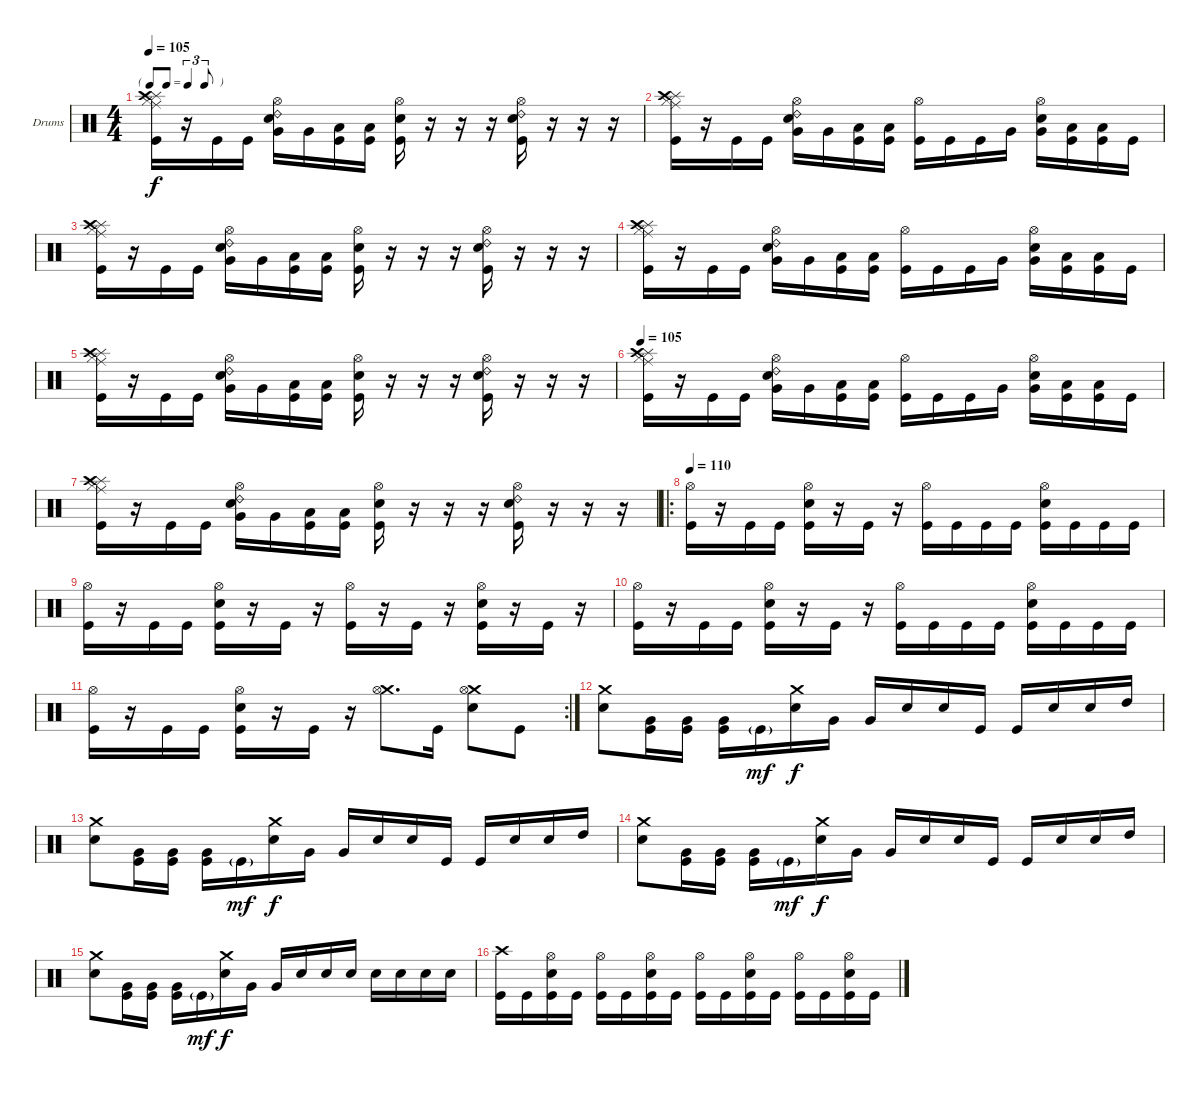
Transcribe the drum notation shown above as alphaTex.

\bracketExtendMode groupsimilarinstruments
\firstSystemTrackNameOrientation horizontal
\otherSystemsTrackNameOrientation horizontal
\track ("Drumkit" "Drums") {instrument percussion}
\staff {score}
\articulation defaults
\ts (4 4)
\tf triplet8th
\tempo 105
\clef neutral
\ks c
("Kick (hit)" "Ride (middle)" "Hi-Hat (closed)" "Splash (hit)" "Crash high (hit)").16{dy f} r.16 "Kick (hit)".16 "Kick (hit)".16 ("Very Low Tom (hit)" "Snare (hit) 2" "Ride (bell) 2" "Hi-Hat (open)").16 "Very Low Tom (hit)".16 ("Low Tom (hit)" "Kick (hit)").16 ("Low Tom (hit)" "Kick (hit)").16 ("Kick (hit)" "Hi-Hat (open)" "Snare (hit) 2").16 r.16 r.16 r.16 ("Kick (hit)" "Snare (hit) 2" "Ride (bell) 2" "Hi-Hat (open)").16 r.16 r.16 r.16 |
("Kick (hit)" "Ride (middle)" "Hi-Hat (closed)" "Splash (hit)" "Crash high (hit)").16 r.16 "Kick (hit)".16 "Kick (hit)".16 ("Very Low Tom (hit)" "Snare (hit) 2" "Ride (bell) 2" "Hi-Hat (open)").16 "Very Low Tom (hit)".16 ("Low Tom (hit)" "Kick (hit)").16 ("Low Tom (hit)" "Kick (hit)").16 ("Kick (hit)" "Hi-Hat (open)").16 "Kick (hit)".16 "Kick (hit)".16 "Very Low Tom (hit)".16 ("Very Low Tom (hit)" "Snare (hit) 2" "Hi-Hat (open)").16 ("Low Tom (hit)" "Kick (hit)").16 ("Low Tom (hit)" "Kick (hit)").16 "Kick (hit)".16 |
("Kick (hit)" "Ride (middle)" "Hi-Hat (closed)" "Splash (hit)" "Crash high (hit)").16 r.16 "Kick (hit)".16 "Kick (hit)".16 ("Very Low Tom (hit)" "Snare (hit) 2" "Ride (bell) 2" "Hi-Hat (open)").16 "Very Low Tom (hit)".16 ("Low Tom (hit)" "Kick (hit)").16 ("Low Tom (hit)" "Kick (hit)").16 ("Kick (hit)" "Hi-Hat (open)" "Snare (hit) 2").16 r.16 r.16 r.16 ("Kick (hit)" "Snare (hit) 2" "Ride (bell) 2" "Hi-Hat (open)").16 r.16 r.16 r.16 |
("Kick (hit)" "Ride (middle)" "Hi-Hat (closed)" "Splash (hit)" "Crash high (hit)").16 r.16 "Kick (hit)".16 "Kick (hit)".16 ("Very Low Tom (hit)" "Snare (hit) 2" "Ride (bell) 2" "Hi-Hat (open)").16 "Very Low Tom (hit)".16 ("Low Tom (hit)" "Kick (hit)").16 ("Low Tom (hit)" "Kick (hit)").16 ("Kick (hit)" "Hi-Hat (open)").16 "Kick (hit)".16 "Kick (hit)".16 "Very Low Tom (hit)".16 ("Very Low Tom (hit)" "Snare (hit) 2" "Hi-Hat (open)").16 ("Low Tom (hit)" "Kick (hit)").16 ("Low Tom (hit)" "Kick (hit)").16 "Kick (hit)".16 |
("Kick (hit)" "Ride (middle)" "Hi-Hat (closed)" "Splash (hit)" "Crash high (hit)").16 r.16 "Kick (hit)".16 "Kick (hit)".16 ("Very Low Tom (hit)" "Snare (hit) 2" "Ride (bell) 2" "Hi-Hat (open)").16 "Very Low Tom (hit)".16 ("Low Tom (hit)" "Kick (hit)").16 ("Low Tom (hit)" "Kick (hit)").16 ("Kick (hit)" "Hi-Hat (open)" "Snare (hit) 2").16 r.16 r.16 r.16 ("Kick (hit)" "Snare (hit) 2" "Ride (bell) 2" "Hi-Hat (open)").16 r.16 r.16 r.16 |
\tempo 105
("Kick (hit)" "Ride (middle)" "Hi-Hat (closed)" "Splash (hit)" "Crash high (hit)").16 r.16 "Kick (hit)".16 "Kick (hit)".16 ("Very Low Tom (hit)" "Snare (hit) 2" "Ride (bell) 2" "Hi-Hat (open)").16 "Very Low Tom (hit)".16 ("Low Tom (hit)" "Kick (hit)").16 ("Low Tom (hit)" "Kick (hit)").16 ("Kick (hit)" "Hi-Hat (open)").16 "Kick (hit)".16 "Kick (hit)".16 "Very Low Tom (hit)".16 ("Very Low Tom (hit)" "Snare (hit) 2" "Hi-Hat (open)").16 ("Low Tom (hit)" "Kick (hit)").16 ("Low Tom (hit)" "Kick (hit)").16 "Kick (hit)".16 |
("Kick (hit)" "Ride (middle)" "Hi-Hat (closed)" "Splash (hit)" "Crash high (hit)").16 r.16 "Kick (hit)".16 "Kick (hit)".16 ("Very Low Tom (hit)" "Snare (hit) 2" "Ride (bell) 2" "Hi-Hat (open)").16 "Very Low Tom (hit)".16 ("Low Tom (hit)" "Kick (hit)").16 ("Low Tom (hit)" "Kick (hit)").16 ("Kick (hit)" "Hi-Hat (open)" "Snare (hit) 2").16 r.16 r.16 r.16 ("Kick (hit)" "Snare (hit) 2" "Ride (bell) 2" "Hi-Hat (open)").16 r.16 r.16 r.16 |
\ro
\tempo 110
("Kick (hit)" "Hi-Hat (open)").16 r.16 "Kick (hit)".16 "Kick (hit)".16 ("Kick (hit)" "Snare (hit) 2" "Hi-Hat (open)").16 r.16 "Kick (hit)".16 r.16 ("Kick (hit)" "Hi-Hat (open)").16 "Kick (hit)".16 "Kick (hit)".16 "Kick (hit)".16 ("Kick (hit)" "Snare (hit) 2" "Hi-Hat (open)").16 "Kick (hit)".16 "Kick (hit)".16 "Kick (hit)".16 |
("Kick (hit)" "Hi-Hat (open)").16 r.16 "Kick (hit)".16 "Kick (hit)".16 ("Kick (hit)" "Snare (hit) 2" "Hi-Hat (open)").16 r.16 "Kick (hit)".16 r.16 ("Kick (hit)" "Hi-Hat (open)").16 r.16 "Kick (hit)".16 r.16 ("Kick (hit)" "Snare (hit) 2" "Hi-Hat (open)").16 r.16 "Kick (hit)".16 r.16 |
("Kick (hit)" "Hi-Hat (open)").16 r.16 "Kick (hit)".16 "Kick (hit)".16 ("Kick (hit)" "Snare (hit) 2" "Hi-Hat (open)").16 r.16 "Kick (hit)".16 r.16 ("Kick (hit)" "Hi-Hat (open)").16 "Kick (hit)".16 "Kick (hit)".16 "Kick (hit)".16 ("Kick (hit)" "Snare (hit) 2" "Hi-Hat (open)").16 "Kick (hit)".16 "Kick (hit)".16 "Kick (hit)".16 |
\rc 2
("Kick (hit)" "Hi-Hat (open)").16 r.16 "Kick (hit)".16 "Kick (hit)".16 ("Kick (hit)" "Snare (hit) 2" "Hi-Hat (open)").16 r.16 "Kick (hit)".16 r.16 ("Crash medium (hit)" "Hi-Hat (open)").8{d} "Kick (hit)".16 ("Crash medium (hit)" "Snare (hit) 2" "Hi-Hat (open)").8 "Kick (hit)".8 |
("Snare (hit) 2" "Crash medium (hit)").8 ("Very Low Tom (hit)" "Kick (hit)").16 ("Very Low Tom (hit)" "Kick (hit)").16 ("Very Low Tom (hit)" "Kick (hit)").16 "Kick (hit)"{g}.16{dy mf} ("Crash medium (hit)" "Snare (hit) 2").16{dy f} "Very Low Tom (hit)".16 "Very Low Tom (hit)".16 "Snare (hit) 2".16 "Snare (hit) 2".16 "Kick (hit)".16 "Kick (hit)".16 "Snare (hit) 2".16 "Snare (hit) 2".16 "High Tom (hit)".16 |
("Snare (hit) 2" "Crash medium (hit)").8 ("Very Low Tom (hit)" "Kick (hit)").16 ("Very Low Tom (hit)" "Kick (hit)").16 ("Very Low Tom (hit)" "Kick (hit)").16 "Kick (hit)"{g}.16{dy mf} ("Crash medium (hit)" "Snare (hit) 2").16{dy f} "Very Low Tom (hit)".16 "Very Low Tom (hit)".16 "Snare (hit) 2".16 "Snare (hit) 2".16 "Kick (hit)".16 "Kick (hit)".16 "Snare (hit) 2".16 "Snare (hit) 2".16 "High Tom (hit)".16 |
("Snare (hit) 2" "Crash medium (hit)").8 ("Very Low Tom (hit)" "Kick (hit)").16 ("Very Low Tom (hit)" "Kick (hit)").16 ("Very Low Tom (hit)" "Kick (hit)").16 "Kick (hit)"{g}.16{dy mf} ("Crash medium (hit)" "Snare (hit) 2").16{dy f} "Very Low Tom (hit)".16 "Very Low Tom (hit)".16 "Snare (hit) 2".16 "Snare (hit) 2".16 "Kick (hit)".16 "Kick (hit)".16 "Snare (hit) 2".16 "Snare (hit) 2".16 "High Tom (hit)".16 |
("Snare (hit) 2" "Crash medium (hit)").8 ("Very Low Tom (hit)" "Kick (hit)").16 ("Very Low Tom (hit)" "Kick (hit)").16 ("Very Low Tom (hit)" "Kick (hit)").16 "Kick (hit)"{g}.16{dy mf} ("Crash medium (hit)" "Snare (hit) 2").16{dy f} "Very Low Tom (hit)".16 "Very Low Tom (hit)".16 "Snare (hit) 2".16 "Snare (hit) 2".16 "Snare (hit) 2".16 "Snare (hit) 2".16 "Snare (hit) 2".16 "Snare (hit) 2".16 "Snare (hit) 2".16 |
("Crash high (hit)" "Kick (hit)").16 "Kick (hit)".16 ("Hi-Hat (open)" "Snare (hit) 2" "Kick (hit)").16 "Kick (hit)".16 ("Hi-Hat (open)" "Kick (hit)").16 "Kick (hit)".16 ("Hi-Hat (open)" "Snare (hit) 2" "Kick (hit)").16 "Kick (hit)".16 ("Hi-Hat (open)" "Kick (hit)").16 "Kick (hit)".16 ("Hi-Hat (open)" "Snare (hit) 2" "Kick (hit)").16 "Kick (hit)".16 ("Hi-Hat (open)" "Kick (hit)").16 "Kick (hit)".16 ("Hi-Hat (open)" "Snare (hit) 2" "Kick (hit)").16 "Kick (hit)".16
